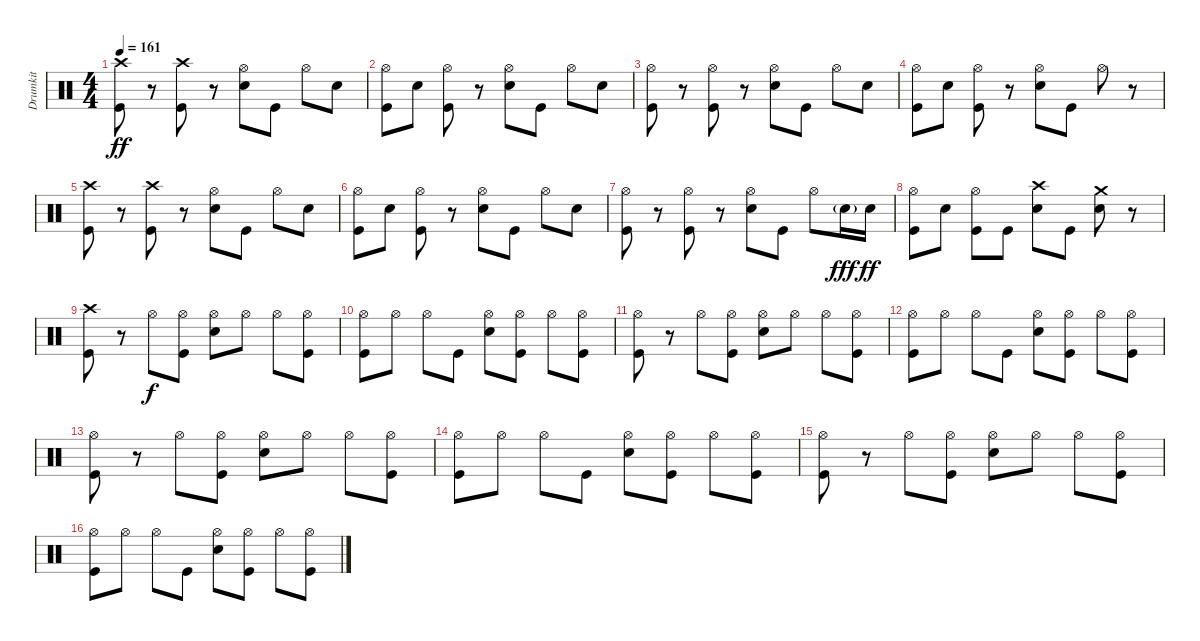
\track ("Drumkit" "Drumkit") {instrument percussion}
\staff {score}
\articulation defaults
\ts (4 4)
\tempo 161
\clef neutral
\ks c
("Kick (hit)" "Crash high (hit)").8{dy ff} r.8 ("Kick (hit)" "Crash high (hit)").8 r.8 ("Hi-Hat (open)" "Snare (hit) 2").8 "Kick (hit)".8 "Hi-Hat (open)".8 "Snare (hit) 2".8 |
("Hi-Hat (open)" "Kick (hit)").8 "Snare (hit) 2".8 ("Hi-Hat (open)" "Kick (hit)").8 r.8 ("Hi-Hat (open)" "Snare (hit) 2").8 "Kick (hit)".8 "Hi-Hat (open)".8 "Snare (hit) 2".8 |
("Hi-Hat (open)" "Kick (hit)").8 r.8 ("Hi-Hat (open)" "Kick (hit)").8 r.8 ("Hi-Hat (open)" "Snare (hit) 2").8 "Kick (hit)".8 "Hi-Hat (open)".8 "Snare (hit) 2".8 |
("Hi-Hat (open)" "Kick (hit)").8 "Snare (hit) 2".8 ("Hi-Hat (open)" "Kick (hit)").8 r.8 ("Hi-Hat (open)" "Snare (hit) 2").8 "Kick (hit)".8 "Hi-Hat (open)".8 r.8 |
("Kick (hit)" "Crash high (hit)").8 r.8 ("Kick (hit)" "Crash high (hit)").8 r.8 ("Hi-Hat (open)" "Snare (hit) 2").8 "Kick (hit)".8 "Hi-Hat (open)".8 "Snare (hit) 2".8 |
("Hi-Hat (open)" "Kick (hit)").8 "Snare (hit) 2".8 ("Hi-Hat (open)" "Kick (hit)").8 r.8 ("Hi-Hat (open)" "Snare (hit) 2").8 "Kick (hit)".8 "Hi-Hat (open)".8 "Snare (hit) 2".8 |
("Hi-Hat (open)" "Kick (hit)").8 r.8 ("Hi-Hat (open)" "Kick (hit)").8 r.8 ("Hi-Hat (open)" "Snare (hit) 2").8 "Kick (hit)".8 "Hi-Hat (open)".8 "Snare (hit) 2"{g}.16{dy fff} "Snare (hit) 2".16{dy ff} |
("Hi-Hat (open)" "Kick (hit)").8 "Snare (hit) 2".8 ("Kick (hit)" "Hi-Hat (open)").8 "Kick (hit)".8 ("Snare (hit) 2" "Crash high (hit)").8 "Kick (hit)".8 ("Snare (hit) 2" "Crash medium (hit)").8 r.8 |
("Crash high (hit)" "Kick (hit)").8 r.8 "Hi-Hat (open)".8{dy f} ("Hi-Hat (open)" "Kick (hit)").8 ("Hi-Hat (open)" "Snare (hit) 2").8 "Hi-Hat (open)".8 "Hi-Hat (open)".8 ("Hi-Hat (open)" "Kick (hit)").8 |
("Hi-Hat (open)" "Kick (hit)").8 "Hi-Hat (open)".8 "Hi-Hat (open)".8 "Kick (hit)".8 ("Hi-Hat (open)" "Snare (hit) 2").8 ("Hi-Hat (open)" "Kick (hit)").8 "Hi-Hat (open)".8 ("Hi-Hat (open)" "Kick (hit)").8 |
("Kick (hit)" "Hi-Hat (open)").8 r.8 "Hi-Hat (open)".8 ("Hi-Hat (open)" "Kick (hit)").8 ("Hi-Hat (open)" "Snare (hit) 2").8 "Hi-Hat (open)".8 "Hi-Hat (open)".8 ("Hi-Hat (open)" "Kick (hit)").8 |
("Hi-Hat (open)" "Kick (hit)").8 "Hi-Hat (open)".8 "Hi-Hat (open)".8 "Kick (hit)".8 ("Hi-Hat (open)" "Snare (hit) 2").8 ("Hi-Hat (open)" "Kick (hit)").8 "Hi-Hat (open)".8 ("Hi-Hat (open)" "Kick (hit)").8 |
("Kick (hit)" "Hi-Hat (open)").8 r.8 "Hi-Hat (open)".8 ("Hi-Hat (open)" "Kick (hit)").8 ("Hi-Hat (open)" "Snare (hit) 2").8 "Hi-Hat (open)".8 "Hi-Hat (open)".8 ("Hi-Hat (open)" "Kick (hit)").8 |
("Hi-Hat (open)" "Kick (hit)").8 "Hi-Hat (open)".8 "Hi-Hat (open)".8 "Kick (hit)".8 ("Hi-Hat (open)" "Snare (hit) 2").8 ("Hi-Hat (open)" "Kick (hit)").8 "Hi-Hat (open)".8 ("Hi-Hat (open)" "Kick (hit)").8 |
("Kick (hit)" "Hi-Hat (open)").8 r.8 "Hi-Hat (open)".8 ("Hi-Hat (open)" "Kick (hit)").8 ("Hi-Hat (open)" "Snare (hit) 2").8 "Hi-Hat (open)".8 "Hi-Hat (open)".8 ("Hi-Hat (open)" "Kick (hit)").8 |
("Hi-Hat (open)" "Kick (hit)").8 "Hi-Hat (open)".8 "Hi-Hat (open)".8 "Kick (hit)".8 ("Hi-Hat (open)" "Snare (hit) 2").8 ("Hi-Hat (open)" "Kick (hit)").8 "Hi-Hat (open)".8 ("Hi-Hat (open)" "Kick (hit)").8
